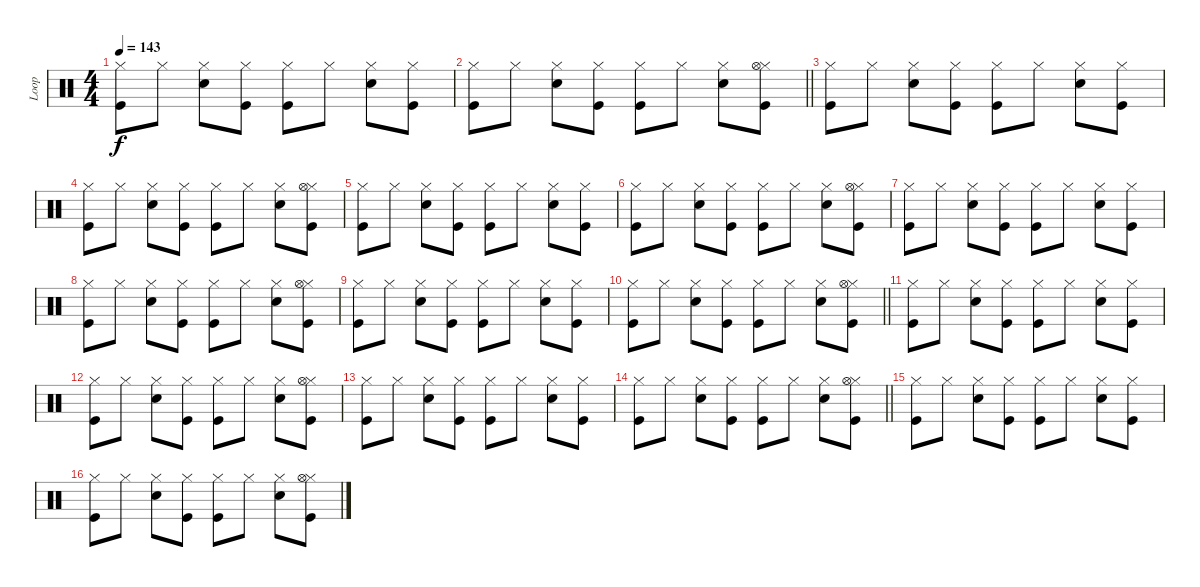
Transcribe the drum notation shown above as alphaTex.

\track ("Loop" "Loop") {instrument percussion}
\staff {score}
\articulation defaults
\ts (4 4)
\tempo 143
\clef neutral
\ks c
("Kick (hit)" "Hi-Hat (closed)").8{dy f} "Hi-Hat (closed)".8 ("Snare (hit) 2" "Hi-Hat (closed)").8 ("Hi-Hat (closed)" "Kick (hit)").8 ("Hi-Hat (closed)" "Kick (hit)").8 "Hi-Hat (closed)".8 ("Hi-Hat (closed)" "Snare (hit) 2").8 ("Hi-Hat (closed)" "Kick (hit)").8 |
\barLineRight lightlight
("Kick (hit)" "Hi-Hat (closed)").8 "Hi-Hat (closed)".8 ("Snare (hit) 2" "Hi-Hat (closed)").8 ("Hi-Hat (closed)" "Kick (hit)").8 ("Hi-Hat (closed)" "Kick (hit)").8 "Hi-Hat (closed)".8 ("Hi-Hat (closed)" "Snare (hit) 2").8 ("Hi-Hat (closed)" "Kick (hit)" "Hi-Hat (open)").8 |
("Kick (hit)" "Hi-Hat (closed)").8 "Hi-Hat (closed)".8 ("Snare (hit) 2" "Hi-Hat (closed)").8 ("Hi-Hat (closed)" "Kick (hit)").8 ("Hi-Hat (closed)" "Kick (hit)").8 "Hi-Hat (closed)".8 ("Hi-Hat (closed)" "Snare (hit) 2").8 ("Hi-Hat (closed)" "Kick (hit)").8 |
("Kick (hit)" "Hi-Hat (closed)").8 "Hi-Hat (closed)".8 ("Snare (hit) 2" "Hi-Hat (closed)").8 ("Hi-Hat (closed)" "Kick (hit)").8 ("Hi-Hat (closed)" "Kick (hit)").8 "Hi-Hat (closed)".8 ("Hi-Hat (closed)" "Snare (hit) 2").8 ("Hi-Hat (closed)" "Kick (hit)" "Hi-Hat (open)").8 |
("Kick (hit)" "Hi-Hat (closed)").8 "Hi-Hat (closed)".8 ("Snare (hit) 2" "Hi-Hat (closed)").8 ("Hi-Hat (closed)" "Kick (hit)").8 ("Hi-Hat (closed)" "Kick (hit)").8 "Hi-Hat (closed)".8 ("Hi-Hat (closed)" "Snare (hit) 2").8 ("Hi-Hat (closed)" "Kick (hit)").8 |
("Kick (hit)" "Hi-Hat (closed)").8 "Hi-Hat (closed)".8 ("Snare (hit) 2" "Hi-Hat (closed)").8 ("Hi-Hat (closed)" "Kick (hit)").8 ("Hi-Hat (closed)" "Kick (hit)").8 "Hi-Hat (closed)".8 ("Hi-Hat (closed)" "Snare (hit) 2").8 ("Hi-Hat (closed)" "Kick (hit)" "Hi-Hat (open)").8 |
("Kick (hit)" "Hi-Hat (closed)").8 "Hi-Hat (closed)".8 ("Snare (hit) 2" "Hi-Hat (closed)").8 ("Hi-Hat (closed)" "Kick (hit)").8 ("Hi-Hat (closed)" "Kick (hit)").8 "Hi-Hat (closed)".8 ("Hi-Hat (closed)" "Snare (hit) 2").8 ("Hi-Hat (closed)" "Kick (hit)").8 |
("Kick (hit)" "Hi-Hat (closed)").8 "Hi-Hat (closed)".8 ("Snare (hit) 2" "Hi-Hat (closed)").8 ("Hi-Hat (closed)" "Kick (hit)").8 ("Hi-Hat (closed)" "Kick (hit)").8 "Hi-Hat (closed)".8 ("Hi-Hat (closed)" "Snare (hit) 2").8 ("Hi-Hat (closed)" "Kick (hit)" "Hi-Hat (open)").8 |
("Kick (hit)" "Hi-Hat (closed)").8 "Hi-Hat (closed)".8 ("Snare (hit) 2" "Hi-Hat (closed)").8 ("Hi-Hat (closed)" "Kick (hit)").8 ("Hi-Hat (closed)" "Kick (hit)").8 "Hi-Hat (closed)".8 ("Hi-Hat (closed)" "Snare (hit) 2").8 ("Hi-Hat (closed)" "Kick (hit)").8 |
\barLineRight lightlight
("Kick (hit)" "Hi-Hat (closed)").8 "Hi-Hat (closed)".8 ("Snare (hit) 2" "Hi-Hat (closed)").8 ("Hi-Hat (closed)" "Kick (hit)").8 ("Hi-Hat (closed)" "Kick (hit)").8 "Hi-Hat (closed)".8 ("Hi-Hat (closed)" "Snare (hit) 2").8 ("Hi-Hat (closed)" "Kick (hit)" "Hi-Hat (open)").8 |
("Kick (hit)" "Hi-Hat (closed)").8 "Hi-Hat (closed)".8 ("Snare (hit) 2" "Hi-Hat (closed)").8 ("Hi-Hat (closed)" "Kick (hit)").8 ("Hi-Hat (closed)" "Kick (hit)").8 "Hi-Hat (closed)".8 ("Hi-Hat (closed)" "Snare (hit) 2").8 ("Hi-Hat (closed)" "Kick (hit)").8 |
("Kick (hit)" "Hi-Hat (closed)").8 "Hi-Hat (closed)".8 ("Snare (hit) 2" "Hi-Hat (closed)").8 ("Hi-Hat (closed)" "Kick (hit)").8 ("Hi-Hat (closed)" "Kick (hit)").8 "Hi-Hat (closed)".8 ("Hi-Hat (closed)" "Snare (hit) 2").8 ("Hi-Hat (closed)" "Kick (hit)" "Hi-Hat (open)").8 |
("Kick (hit)" "Hi-Hat (closed)").8 "Hi-Hat (closed)".8 ("Snare (hit) 2" "Hi-Hat (closed)").8 ("Hi-Hat (closed)" "Kick (hit)").8 ("Hi-Hat (closed)" "Kick (hit)").8 "Hi-Hat (closed)".8 ("Hi-Hat (closed)" "Snare (hit) 2").8 ("Hi-Hat (closed)" "Kick (hit)").8 |
\barLineRight lightlight
("Kick (hit)" "Hi-Hat (closed)").8 "Hi-Hat (closed)".8 ("Snare (hit) 2" "Hi-Hat (closed)").8 ("Hi-Hat (closed)" "Kick (hit)").8 ("Hi-Hat (closed)" "Kick (hit)").8 "Hi-Hat (closed)".8 ("Hi-Hat (closed)" "Snare (hit) 2").8 ("Hi-Hat (closed)" "Kick (hit)" "Hi-Hat (open)").8 |
("Kick (hit)" "Hi-Hat (closed)").8 "Hi-Hat (closed)".8 ("Snare (hit) 2" "Hi-Hat (closed)").8 ("Hi-Hat (closed)" "Kick (hit)").8 ("Hi-Hat (closed)" "Kick (hit)").8 "Hi-Hat (closed)".8 ("Hi-Hat (closed)" "Snare (hit) 2").8 ("Hi-Hat (closed)" "Kick (hit)").8 |
("Kick (hit)" "Hi-Hat (closed)").8 "Hi-Hat (closed)".8 ("Snare (hit) 2" "Hi-Hat (closed)").8 ("Hi-Hat (closed)" "Kick (hit)").8 ("Hi-Hat (closed)" "Kick (hit)").8 "Hi-Hat (closed)".8 ("Hi-Hat (closed)" "Snare (hit) 2").8 ("Hi-Hat (closed)" "Kick (hit)" "Hi-Hat (open)").8
